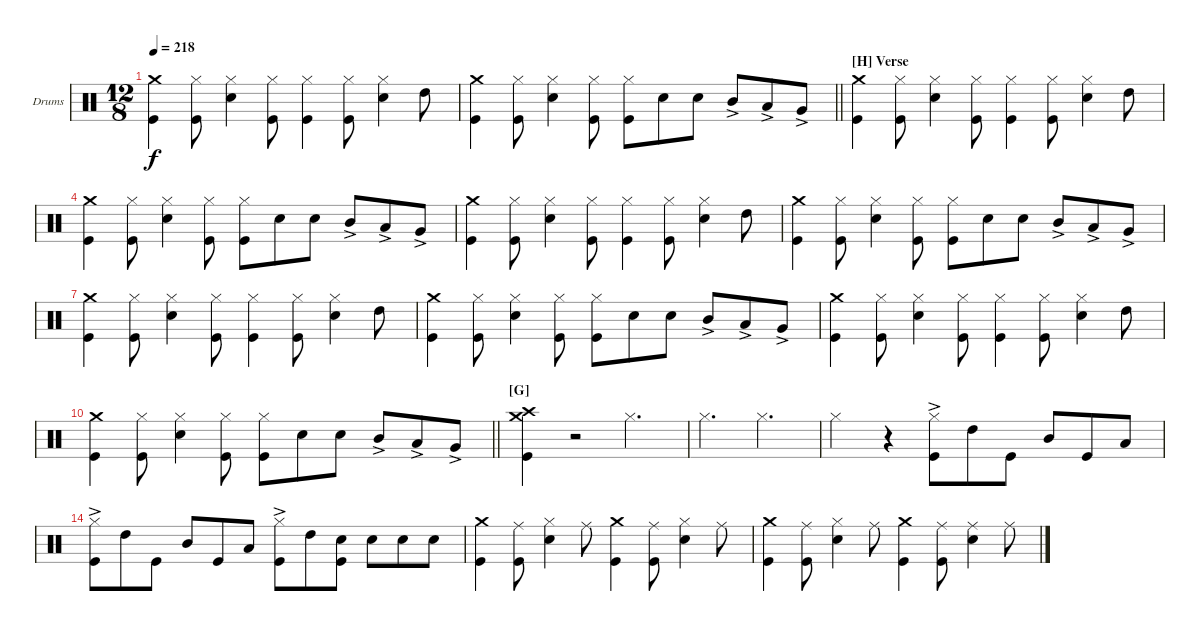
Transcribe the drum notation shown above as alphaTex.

\bracketExtendMode nobrackets
\firstSystemTrackNameOrientation horizontal
\otherSystemsTrackNameOrientation horizontal
\defaultBarNumberDisplay FirstOfSystem
\track ("Drums" "Drums") {instrument percussion}
\staff {score}
\articulation defaults
\ts (12 8)
\tempo 218
\clef neutral
\ks c
("Crash medium (hit)" "Kick (hit)").4{dy f} ("Hi-Hat (closed)" "Kick (hit)").8 ("Hi-Hat (closed)" "Snare (hit) 2").4 ("Hi-Hat (closed)" "Kick (hit)").8 ("Hi-Hat (closed)" "Kick (hit)").4 ("Hi-Hat (closed)" "Kick (hit)").8 ("Hi-Hat (closed)" "Snare (hit) 2").4 "High Tom (hit)".8 |
\barLineRight lightlight
("Crash medium (hit)" "Kick (hit)").4 ("Hi-Hat (closed)" "Kick (hit)").8 ("Hi-Hat (closed)" "Snare (hit) 2").4 ("Hi-Hat (closed)" "Kick (hit)").8 ("Hi-Hat (closed)" "Kick (hit)").8 "Snare (hit) 2".8 "Snare (hit) 2".8 "Mid Tom (hit)"{ac}.8 "Low Tom (hit)"{ac}.8 "Very Low Tom (hit)"{ac}.8 |
\section ("H" "Verse")
("Crash medium (hit)" "Kick (hit)").4 ("Hi-Hat (closed)" "Kick (hit)").8 ("Hi-Hat (closed)" "Snare (hit) 2").4 ("Hi-Hat (closed)" "Kick (hit)").8 ("Hi-Hat (closed)" "Kick (hit)").4 ("Hi-Hat (closed)" "Kick (hit)").8 ("Hi-Hat (closed)" "Snare (hit) 2").4 "High Tom (hit)".8 |
("Crash medium (hit)" "Kick (hit)").4 ("Hi-Hat (closed)" "Kick (hit)").8 ("Hi-Hat (closed)" "Snare (hit) 2").4 ("Hi-Hat (closed)" "Kick (hit)").8 ("Hi-Hat (closed)" "Kick (hit)").8 "Snare (hit) 2".8 "Snare (hit) 2".8 "Mid Tom (hit)"{ac}.8 "Low Tom (hit)"{ac}.8 "Very Low Tom (hit)"{ac}.8 |
("Crash medium (hit)" "Kick (hit)").4 ("Hi-Hat (closed)" "Kick (hit)").8 ("Hi-Hat (closed)" "Snare (hit) 2").4 ("Hi-Hat (closed)" "Kick (hit)").8 ("Hi-Hat (closed)" "Kick (hit)").4 ("Hi-Hat (closed)" "Kick (hit)").8 ("Hi-Hat (closed)" "Snare (hit) 2").4 "High Tom (hit)".8 |
("Crash medium (hit)" "Kick (hit)").4 ("Hi-Hat (closed)" "Kick (hit)").8 ("Hi-Hat (closed)" "Snare (hit) 2").4 ("Hi-Hat (closed)" "Kick (hit)").8 ("Hi-Hat (closed)" "Kick (hit)").8 "Snare (hit) 2".8 "Snare (hit) 2".8 "Mid Tom (hit)"{ac}.8 "Low Tom (hit)"{ac}.8 "Very Low Tom (hit)"{ac}.8 |
("Crash medium (hit)" "Kick (hit)").4 ("Hi-Hat (closed)" "Kick (hit)").8 ("Hi-Hat (closed)" "Snare (hit) 2").4 ("Hi-Hat (closed)" "Kick (hit)").8 ("Hi-Hat (closed)" "Kick (hit)").4 ("Hi-Hat (closed)" "Kick (hit)").8 ("Hi-Hat (closed)" "Snare (hit) 2").4 "High Tom (hit)".8 |
("Crash medium (hit)" "Kick (hit)").4 ("Hi-Hat (closed)" "Kick (hit)").8 ("Hi-Hat (closed)" "Snare (hit) 2").4 ("Hi-Hat (closed)" "Kick (hit)").8 ("Hi-Hat (closed)" "Kick (hit)").8 "Snare (hit) 2".8 "Snare (hit) 2".8 "Mid Tom (hit)"{ac}.8 "Low Tom (hit)"{ac}.8 "Very Low Tom (hit)"{ac}.8 |
("Crash medium (hit)" "Kick (hit)").4 ("Hi-Hat (closed)" "Kick (hit)").8 ("Hi-Hat (closed)" "Snare (hit) 2").4 ("Hi-Hat (closed)" "Kick (hit)").8 ("Hi-Hat (closed)" "Kick (hit)").4 ("Hi-Hat (closed)" "Kick (hit)").8 ("Hi-Hat (closed)" "Snare (hit) 2").4 "High Tom (hit)".8 |
\barLineRight lightlight
("Crash medium (hit)" "Kick (hit)").4 ("Hi-Hat (closed)" "Kick (hit)").8 ("Hi-Hat (closed)" "Snare (hit) 2").4 ("Hi-Hat (closed)" "Kick (hit)").8 ("Hi-Hat (closed)" "Kick (hit)").8 "Snare (hit) 2".8 "Snare (hit) 2".8 "Mid Tom (hit)"{ac}.8 "Low Tom (hit)"{ac}.8 "Very Low Tom (hit)"{ac}.8 |
\section ("G" "")
("Crash medium (hit)" "Crash high (hit)" "Kick (hit)").4 r.2 "Hi-Hat (closed)".2{d} |
"Hi-Hat (closed)".2{d} "Hi-Hat (closed)".2{d} |
"Hi-Hat (closed)".2 r.4 ("Kick (hit)" "Hi-Hat (closed)"{ac}).8 "High Tom (hit)".8 "Kick (hit)".8 "Mid Tom (hit)".8 "Kick (hit)".8 "Low Tom (hit)".8 |
("Kick (hit)" "Hi-Hat (closed)"{ac}).8 "High Tom (hit)".8 "Kick (hit)".8 "Mid Tom (hit)".8 "Kick (hit)".8 "Low Tom (hit)".8 ("Kick (hit)" "Hi-Hat (closed)"{ac}).8 "High Tom (hit)".8 ("Kick (hit)" "Snare (hit) 2").8 "Snare (hit) 2".8 "Snare (hit) 2".8 "Snare (hit) 2".8 |
("Crash medium (hit)" "Kick (hit)").4 ("Ride (middle)" "Kick (hit)").8 ("Snare (hit) 2" "Hi-Hat (closed)").4 "Ride (middle)".8 ("Crash medium (hit)" "Kick (hit)").4 ("Ride (middle)" "Kick (hit)").8 ("Snare (hit) 2" "Hi-Hat (closed)").4 "Ride (middle)".8 |
("Crash medium (hit)" "Kick (hit)").4 ("Ride (middle)" "Kick (hit)").8 ("Snare (hit) 2" "Hi-Hat (closed)").4 "Ride (middle)".8 ("Crash medium (hit)" "Kick (hit)").4 ("Ride (middle)" "Kick (hit)").8 ("Ride (middle)" "Snare (hit) 2").4 "Ride (middle)".8
